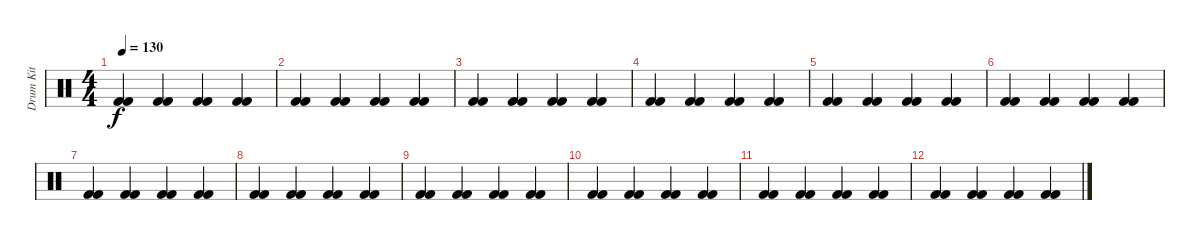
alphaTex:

\track ("Drum Kit" "Drum Kit") {instrument percussion}
\staff {score}
\articulation defaults
\ts (4 4)
\tempo 130
\clef neutral
\ks c
("Kick (hit) 2" "Kick (hit) 2").4{dy f} ("Kick (hit) 2" "Kick (hit) 2").4 ("Kick (hit) 2" "Kick (hit) 2").4 ("Kick (hit) 2" "Kick (hit) 2").4 |
("Kick (hit) 2" "Kick (hit) 2").4 ("Kick (hit) 2" "Kick (hit) 2").4 ("Kick (hit) 2" "Kick (hit) 2").4 ("Kick (hit) 2" "Kick (hit) 2").4 |
("Kick (hit) 2" "Kick (hit) 2").4 ("Kick (hit) 2" "Kick (hit) 2").4 ("Kick (hit) 2" "Kick (hit) 2").4 ("Kick (hit) 2" "Kick (hit) 2").4 |
("Kick (hit) 2" "Kick (hit) 2").4 ("Kick (hit) 2" "Kick (hit) 2").4 ("Kick (hit) 2" "Kick (hit) 2").4 ("Kick (hit) 2" "Kick (hit) 2").4 |
("Kick (hit) 2" "Kick (hit) 2").4 ("Kick (hit) 2" "Kick (hit) 2").4 ("Kick (hit) 2" "Kick (hit) 2").4 ("Kick (hit) 2" "Kick (hit) 2").4 |
("Kick (hit) 2" "Kick (hit) 2").4 ("Kick (hit) 2" "Kick (hit) 2").4 ("Kick (hit) 2" "Kick (hit) 2").4 ("Kick (hit) 2" "Kick (hit) 2").4 |
("Kick (hit) 2" "Kick (hit) 2").4 ("Kick (hit) 2" "Kick (hit) 2").4 ("Kick (hit) 2" "Kick (hit) 2").4 ("Kick (hit) 2" "Kick (hit) 2").4 |
("Kick (hit) 2" "Kick (hit) 2").4 ("Kick (hit) 2" "Kick (hit) 2").4 ("Kick (hit) 2" "Kick (hit) 2").4 ("Kick (hit) 2" "Kick (hit) 2").4 |
("Kick (hit) 2" "Kick (hit) 2").4 ("Kick (hit) 2" "Kick (hit) 2").4 ("Kick (hit) 2" "Kick (hit) 2").4 ("Kick (hit) 2" "Kick (hit) 2").4 |
("Kick (hit) 2" "Kick (hit) 2").4 ("Kick (hit) 2" "Kick (hit) 2").4 ("Kick (hit) 2" "Kick (hit) 2").4 ("Kick (hit) 2" "Kick (hit) 2").4 |
("Kick (hit) 2" "Kick (hit) 2").4 ("Kick (hit) 2" "Kick (hit) 2").4 ("Kick (hit) 2" "Kick (hit) 2").4 ("Kick (hit) 2" "Kick (hit) 2").4 |
("Kick (hit) 2" "Kick (hit) 2").4 ("Kick (hit) 2" "Kick (hit) 2").4 ("Kick (hit) 2" "Kick (hit) 2").4 ("Kick (hit) 2" "Kick (hit) 2").4
